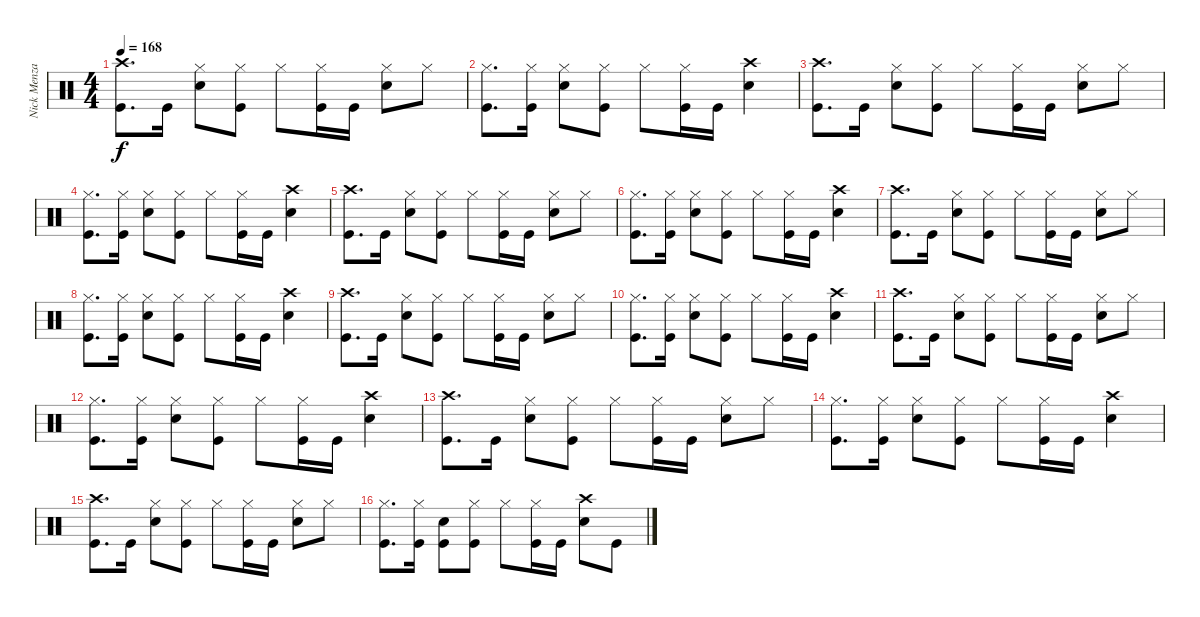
\track ("Nick Menza" "Nick Menza") {instrument percussion}
\staff {score}
\articulation defaults
\ts (4 4)
\tempo 168
\clef neutral
\ks c
("Kick (hit)" "Crash high (hit)").8{d dy f} "Kick (hit)".16 ("Hi-Hat (closed)" "Snare (hit) 2").8 ("Kick (hit)" "Hi-Hat (closed)").8 "Hi-Hat (closed)".8 ("Kick (hit)" "Hi-Hat (closed)").16 "Kick (hit)".16 ("Hi-Hat (closed)" "Snare (hit) 2").8 "Hi-Hat (closed)".8 |
("Kick (hit)" "Hi-Hat (closed)").8{d} ("Kick (hit)" "Hi-Hat (closed)").16 ("Hi-Hat (closed)" "Snare (hit) 2").8 ("Kick (hit)" "Hi-Hat (closed)").8 "Hi-Hat (closed)".8 ("Kick (hit)" "Hi-Hat (closed)").16 "Kick (hit)".16 ("Snare (hit) 2" "Crash high (hit)").4 |
("Kick (hit)" "Crash high (hit)").8{d} "Kick (hit)".16 ("Hi-Hat (closed)" "Snare (hit) 2").8 ("Kick (hit)" "Hi-Hat (closed)").8 "Hi-Hat (closed)".8 ("Kick (hit)" "Hi-Hat (closed)").16 "Kick (hit)".16 ("Hi-Hat (closed)" "Snare (hit) 2").8 "Hi-Hat (closed)".8 |
("Kick (hit)" "Hi-Hat (closed)").8{d} ("Kick (hit)" "Hi-Hat (closed)").16 ("Hi-Hat (closed)" "Snare (hit) 2").8 ("Kick (hit)" "Hi-Hat (closed)").8 "Hi-Hat (closed)".8 ("Kick (hit)" "Hi-Hat (closed)").16 "Kick (hit)".16 ("Snare (hit) 2" "Crash high (hit)").4 |
("Kick (hit)" "Crash high (hit)").8{d} "Kick (hit)".16 ("Hi-Hat (closed)" "Snare (hit) 2").8 ("Kick (hit)" "Hi-Hat (closed)").8 "Hi-Hat (closed)".8 ("Kick (hit)" "Hi-Hat (closed)").16 "Kick (hit)".16 ("Hi-Hat (closed)" "Snare (hit) 2").8 "Hi-Hat (closed)".8 |
("Kick (hit)" "Hi-Hat (closed)").8{d} ("Kick (hit)" "Hi-Hat (closed)").16 ("Hi-Hat (closed)" "Snare (hit) 2").8 ("Kick (hit)" "Hi-Hat (closed)").8 "Hi-Hat (closed)".8 ("Kick (hit)" "Hi-Hat (closed)").16 "Kick (hit)".16 ("Snare (hit) 2" "Crash high (hit)").4 |
("Kick (hit)" "Crash high (hit)").8{d} "Kick (hit)".16 ("Hi-Hat (closed)" "Snare (hit) 2").8 ("Kick (hit)" "Hi-Hat (closed)").8 "Hi-Hat (closed)".8 ("Kick (hit)" "Hi-Hat (closed)").16 "Kick (hit)".16 ("Hi-Hat (closed)" "Snare (hit) 2").8 "Hi-Hat (closed)".8 |
("Kick (hit)" "Hi-Hat (closed)").8{d} ("Kick (hit)" "Hi-Hat (closed)").16 ("Hi-Hat (closed)" "Snare (hit) 2").8 ("Kick (hit)" "Hi-Hat (closed)").8 "Hi-Hat (closed)".8 ("Kick (hit)" "Hi-Hat (closed)").16 "Kick (hit)".16 ("Snare (hit) 2" "Crash high (hit)").4 |
("Kick (hit)" "Crash high (hit)").8{d} "Kick (hit)".16 ("Hi-Hat (closed)" "Snare (hit) 2").8 ("Kick (hit)" "Hi-Hat (closed)").8 "Hi-Hat (closed)".8 ("Kick (hit)" "Hi-Hat (closed)").16 "Kick (hit)".16 ("Hi-Hat (closed)" "Snare (hit) 2").8 "Hi-Hat (closed)".8 |
("Kick (hit)" "Hi-Hat (closed)").8{d} ("Kick (hit)" "Hi-Hat (closed)").16 ("Hi-Hat (closed)" "Snare (hit) 2").8 ("Kick (hit)" "Hi-Hat (closed)").8 "Hi-Hat (closed)".8 ("Kick (hit)" "Hi-Hat (closed)").16 "Kick (hit)".16 ("Snare (hit) 2" "Crash high (hit)").4 |
("Kick (hit)" "Crash high (hit)").8{d} "Kick (hit)".16 ("Hi-Hat (closed)" "Snare (hit) 2").8 ("Kick (hit)" "Hi-Hat (closed)").8 "Hi-Hat (closed)".8 ("Kick (hit)" "Hi-Hat (closed)").16 "Kick (hit)".16 ("Hi-Hat (closed)" "Snare (hit) 2").8 "Hi-Hat (closed)".8 |
("Kick (hit)" "Hi-Hat (closed)").8{d} ("Kick (hit)" "Hi-Hat (closed)").16 ("Hi-Hat (closed)" "Snare (hit) 2").8 ("Kick (hit)" "Hi-Hat (closed)").8 "Hi-Hat (closed)".8 ("Kick (hit)" "Hi-Hat (closed)").16 "Kick (hit)".16 ("Snare (hit) 2" "Crash high (hit)").4 |
("Kick (hit)" "Crash high (hit)").8{d} "Kick (hit)".16 ("Hi-Hat (closed)" "Snare (hit) 2").8 ("Kick (hit)" "Hi-Hat (closed)").8 "Hi-Hat (closed)".8 ("Kick (hit)" "Hi-Hat (closed)").16 "Kick (hit)".16 ("Hi-Hat (closed)" "Snare (hit) 2").8 "Hi-Hat (closed)".8 |
("Kick (hit)" "Hi-Hat (closed)").8{d} ("Kick (hit)" "Hi-Hat (closed)").16 ("Hi-Hat (closed)" "Snare (hit) 2").8 ("Kick (hit)" "Hi-Hat (closed)").8 "Hi-Hat (closed)".8 ("Kick (hit)" "Hi-Hat (closed)").16 "Kick (hit)".16 ("Snare (hit) 2" "Crash high (hit)").4 |
("Kick (hit)" "Crash high (hit)").8{d} "Kick (hit)".16 ("Hi-Hat (closed)" "Snare (hit) 2").8 ("Kick (hit)" "Hi-Hat (closed)").8 "Hi-Hat (closed)".8 ("Kick (hit)" "Hi-Hat (closed)").16 "Kick (hit)".16 ("Hi-Hat (closed)" "Snare (hit) 2").8 "Hi-Hat (closed)".8 |
("Kick (hit)" "Hi-Hat (closed)").8{d} ("Kick (hit)" "Hi-Hat (closed)").16 ("Kick (hit)" "Snare (hit) 2").8 ("Kick (hit)" "Hi-Hat (closed)").8 "Hi-Hat (closed)".8 ("Kick (hit)" "Hi-Hat (closed)").16 "Kick (hit)".16 ("Snare (hit) 2" "Crash high (hit)").8 "Kick (hit)".8
